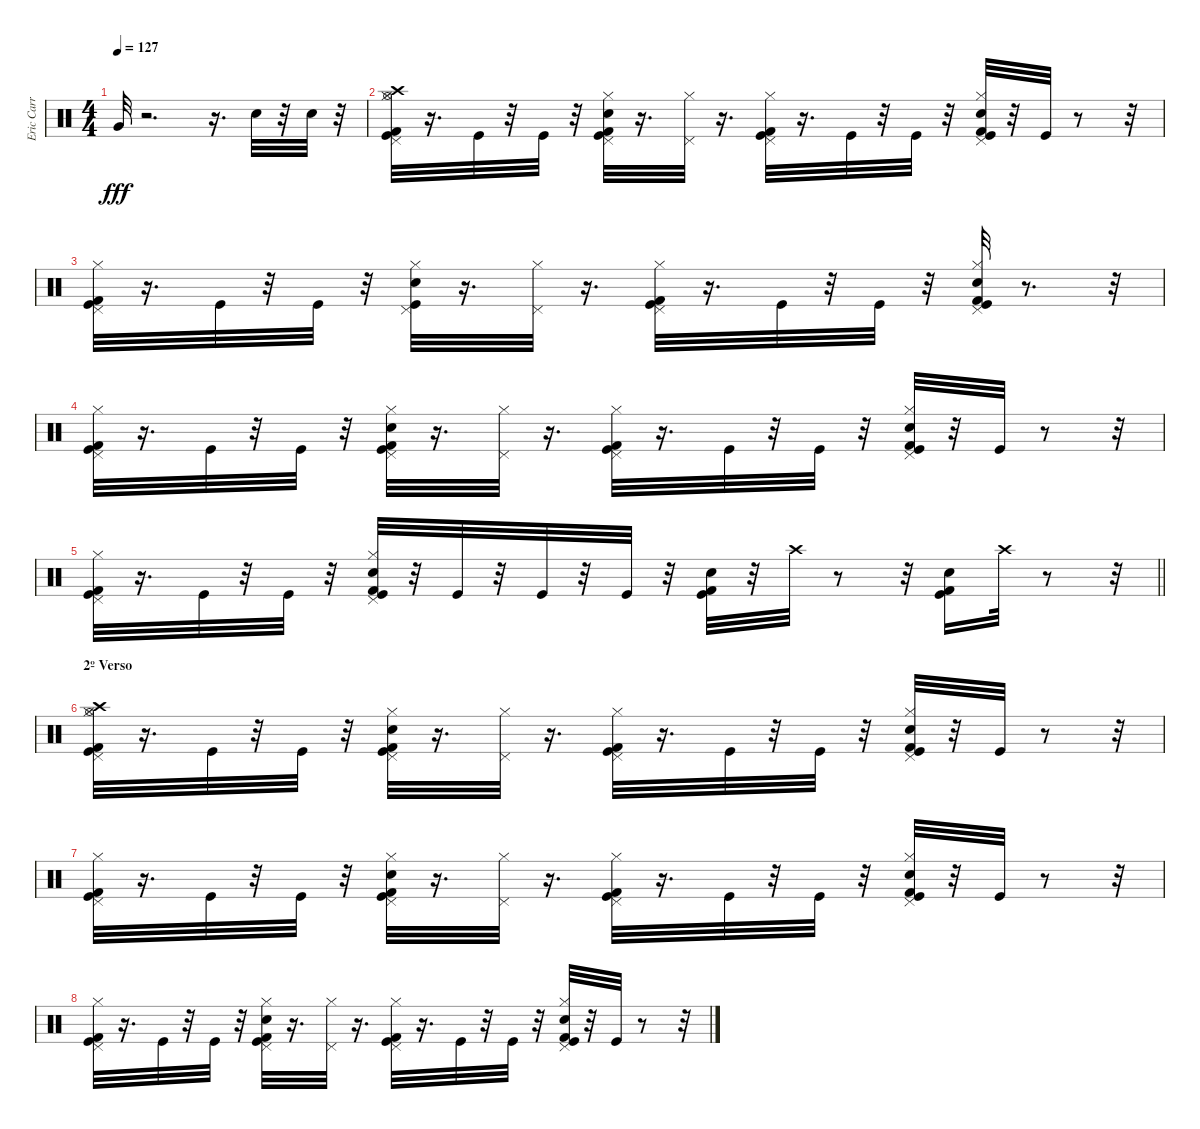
\track ("Eric Carr - Bateria" "Eric Carr ") {instrument percussion}
\staff {score}
\articulation defaults
\ts (4 4)
\tempo 127
\clef neutral
\ks c "Very Low Tom (hit)".32{dy fff}
r.2{d} r.16{d} "Snare (hit) 2".32 r.32 "Snare (hit) 2".32 r.32 |
("Hi-Hat (closed)" "Pedal Hi-Hat (hit)" "Hi-Hat (open)" "Kick (hit) 2" "Kick (hit)" "Crash high (hit)").32 r.16{d} "Kick (hit)".32 r.32 "Kick (hit)".32 r.32 ("Hi-Hat (closed)" "Kick (hit) 2" "Kick (hit)" "Snare (hit) 2" "Pedal Hi-Hat (hit)").32 r.16{d} ("Pedal Hi-Hat (hit)" "Hi-Hat (closed)").32 r.16{d} ("Hi-Hat (closed)" "Pedal Hi-Hat (hit)" "Kick (hit) 2" "Kick (hit)").32 r.16{d} "Kick (hit)".32 r.32 "Kick (hit)".32 r.32 ("Hi-Hat (closed)" "Pedal Hi-Hat (hit)" "Snare (hit) 2" "Kick (hit)" "Kick (hit) 2").32 r.32 "Kick (hit)".32 r.8 r.32 |
("Kick (hit) 2" "Hi-Hat (closed)" "Kick (hit)" "Pedal Hi-Hat (hit)").32 r.16{d} "Kick (hit)".32 r.32 "Kick (hit)".32 r.32 ("Kick (hit)" "Snare (hit) 2" "Pedal Hi-Hat (hit)" "Hi-Hat (closed)").32 r.16{d} ("Pedal Hi-Hat (hit)" "Hi-Hat (closed)").32 r.16{d} ("Kick (hit) 2" "Kick (hit)" "Hi-Hat (closed)" "Pedal Hi-Hat (hit)").32 r.16{d} "Kick (hit)".32 r.32 "Kick (hit)".32 r.32 ("Pedal Hi-Hat (hit)" "Kick (hit) 2" "Kick (hit)" "Hi-Hat (closed)" "Snare (hit) 2").32 r.8{d} r.32 |
("Kick (hit) 2" "Pedal Hi-Hat (hit)" "Kick (hit)" "Hi-Hat (closed)").32 r.16{d} "Kick (hit)".32 r.32 "Kick (hit)".32 r.32 ("Pedal Hi-Hat (hit)" "Snare (hit) 2" "Kick (hit) 2" "Hi-Hat (closed)" "Kick (hit)").32 r.16{d} ("Pedal Hi-Hat (hit)" "Hi-Hat (closed)").32 r.16{d} ("Hi-Hat (closed)" "Pedal Hi-Hat (hit)" "Kick (hit)" "Kick (hit) 2").32 r.16{d} "Kick (hit)".32 r.32 "Kick (hit)".32 r.32 ("Snare (hit) 2" "Kick (hit)" "Kick (hit) 2" "Pedal Hi-Hat (hit)" "Hi-Hat (closed)").32 r.32 "Kick (hit)".32 r.8 r.32 |
\barLineRight lightlight
("Kick (hit) 2" "Pedal Hi-Hat (hit)" "Hi-Hat (closed)" "Kick (hit)").32 r.16{d} "Kick (hit)".32 r.32 "Kick (hit)".32 r.32 ("Hi-Hat (closed)" "Pedal Hi-Hat (hit)" "Kick (hit)" "Snare (hit) 2" "Kick (hit) 2").32 r.32 "Kick (hit)".32 r.32 "Kick (hit)".32 r.32 "Kick (hit)".32 r.32 ("Snare (hit) 2" "Kick (hit)" "Kick (hit) 2").32 r.32 "Crash high (hit)".32 r.8 r.32 ("Snare (hit) 2" "Kick (hit) 2" "Kick (hit)").16 "Crash high (hit)".32 r.8 r.32 |
\section ("" "2º Verso")
("Hi-Hat (closed)" "Pedal Hi-Hat (hit)" "Hi-Hat (open)" "Kick (hit) 2" "Kick (hit)" "Crash high (hit)").32 r.16{d} "Kick (hit)".32 r.32 "Kick (hit)".32 r.32 ("Hi-Hat (closed)" "Kick (hit) 2" "Kick (hit)" "Snare (hit) 2" "Pedal Hi-Hat (hit)").32 r.16{d} ("Hi-Hat (closed)" "Pedal Hi-Hat (hit)").32 r.16{d} ("Hi-Hat (closed)" "Pedal Hi-Hat (hit)" "Kick (hit) 2" "Kick (hit)").32 r.16{d} "Kick (hit)".32 r.32 "Kick (hit)".32 r.32 ("Hi-Hat (closed)" "Pedal Hi-Hat (hit)" "Snare (hit) 2" "Kick (hit)" "Kick (hit) 2").32 r.32 "Kick (hit)".32 r.8 r.32 |
("Hi-Hat (closed)" "Pedal Hi-Hat (hit)" "Kick (hit) 2" "Kick (hit)").32 r.16{d} "Kick (hit)".32 r.32 "Kick (hit)".32 r.32 ("Hi-Hat (closed)" "Pedal Hi-Hat (hit)" "Snare (hit) 2" "Kick (hit) 2" "Kick (hit)").32 r.16{d} ("Hi-Hat (closed)" "Pedal Hi-Hat (hit)").32 r.16{d} ("Hi-Hat (closed)" "Pedal Hi-Hat (hit)" "Kick (hit)" "Kick (hit) 2").32 r.16{d} "Kick (hit)".32 r.32 "Kick (hit)".32 r.32 ("Hi-Hat (closed)" "Pedal Hi-Hat (hit)" "Kick (hit)" "Snare (hit) 2" "Kick (hit) 2").32 r.32 "Kick (hit)".32 r.8 r.32 |
("Pedal Hi-Hat (hit)" "Hi-Hat (closed)" "Kick (hit) 2" "Kick (hit)").32 r.16{d} "Kick (hit)".32 r.32 "Kick (hit)".32 r.32 ("Hi-Hat (closed)" "Pedal Hi-Hat (hit)" "Kick (hit) 2" "Snare (hit) 2" "Kick (hit)").32 r.16{d} ("Hi-Hat (closed)" "Pedal Hi-Hat (hit)").32 r.16{d} ("Kick (hit) 2" "Kick (hit)" "Hi-Hat (closed)" "Pedal Hi-Hat (hit)").32 r.16{d} "Kick (hit)".32 r.32 "Kick (hit)".32 r.32 ("Snare (hit) 2" "Kick (hit)" "Kick (hit) 2" "Hi-Hat (closed)" "Pedal Hi-Hat (hit)").32 r.32 "Kick (hit)".32 r.8 r.32
